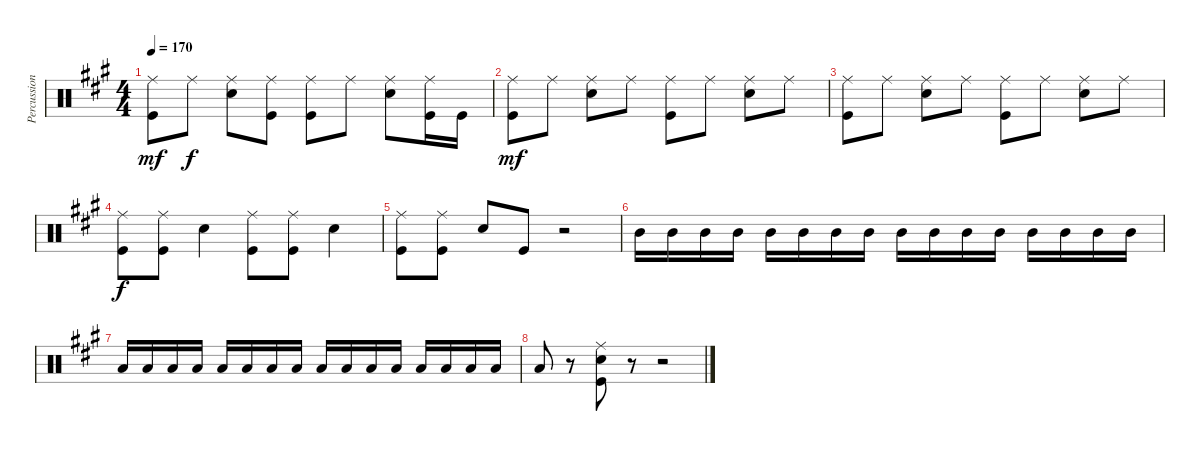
\track ("Percussion" "Percussion") {instrument percussion}
\staff {score}
\articulation defaults
\ts (4 4)
\tempo 170
\clef neutral
\ks a
("Ride (middle)" "Kick (hit)").8{dy mf} "Ride (middle)".8{dy f} ("Ride (middle)" "Snare (hit) 2").8 ("Ride (middle)" "Kick (hit)").8 ("Ride (middle)" "Kick (hit)").8 "Ride (middle)".8 ("Ride (middle)" "Snare (hit) 2").8 ("Ride (middle)" "Kick (hit)").16 "Kick (hit)".16 |
("Ride (middle)" "Kick (hit)").8{dy mf} "Ride (middle)".8 ("Ride (middle)" "Snare (hit) 2").8 "Ride (middle)".8 ("Ride (middle)" "Kick (hit)").8 "Ride (middle)".8 ("Ride (middle)" "Snare (hit) 2").8 "Ride (middle)".8 |
("Ride (middle)" "Kick (hit)").8 "Ride (middle)".8 ("Ride (middle)" "Snare (hit) 2").8 "Ride (middle)".8 ("Ride (middle)" "Kick (hit)").8 "Ride (middle)".8 ("Ride (middle)" "Snare (hit) 2").8 "Ride (middle)".8 |
("Ride (middle)" "Kick (hit)").8{dy f} ("Ride (middle)" "Kick (hit)").8 "Snare (hit) 2".4 ("Ride (middle)" "Kick (hit)").8 ("Ride (middle)" "Kick (hit)").8 "Snare (hit) 2".4 |
("Ride (middle)" "Kick (hit)").8 ("Ride (middle)" "Kick (hit)").8 "Snare (hit) 2".8 "Kick (hit)".8 r.2 |
"Mid Tom (hit)".16 "Mid Tom (hit)".16 "Mid Tom (hit)".16 "Mid Tom (hit)".16 "Mid Tom (hit)".16 "Mid Tom (hit)".16 "Mid Tom (hit)".16 "Mid Tom (hit)".16 "Mid Tom (hit)".16 "Mid Tom (hit)".16 "Mid Tom (hit)".16 "Mid Tom (hit)".16 "Mid Tom (hit)".16 "Mid Tom (hit)".16 "Mid Tom (hit)".16 "Mid Tom (hit)".16 |
"Low Tom (hit)".16 "Low Tom (hit)".16 "Low Tom (hit)".16 "Low Tom (hit)".16 "Low Tom (hit)".16 "Low Tom (hit)".16 "Low Tom (hit)".16 "Low Tom (hit)".16 "Low Tom (hit)".16 "Low Tom (hit)".16 "Low Tom (hit)".16 "Low Tom (hit)".16 "Low Tom (hit)".16 "Low Tom (hit)".16 "Low Tom (hit)".16 "Low Tom (hit)".16 |
"Low Floor Tom (hit)".8 r.8 ("Ride (middle)" "Snare (hit) 2" "Kick (hit)").8 r.8 r.2
